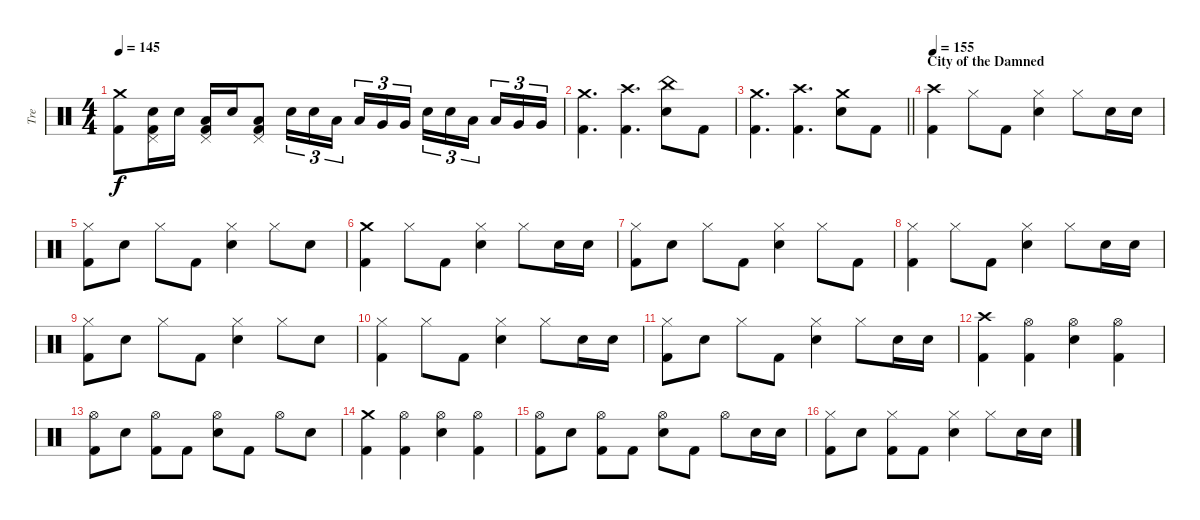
\track ("Tre" "Tre") {instrument percussion}
\staff {score}
\articulation defaults
\ts (4 4)
\tempo 145
\clef neutral
\ks c
("Crash medium (hit)" "Kick (hit) 2").8{dy f} ("Snare (hit) 2" "Pedal Hi-Hat (hit)" "Kick (hit) 2").16 "Snare (hit) 2".16 ("Low Tom (hit)" "Pedal Hi-Hat (hit)" "Kick (hit) 2").16 "Snare (hit) 2".16 ("Low Tom (hit)" "Pedal Hi-Hat (hit)" "Kick (hit) 2").8 "Snare (hit) 2".16{tu (3 2)} "Snare (hit) 2".16{tu (3 2)} "Low Tom (hit)".16{tu (3 2) beam splitsecondary} "Low Tom (hit)".16{tu (3 2)} "Very Low Tom (hit)".16{tu (3 2)} "Very Low Tom (hit)".16{tu (3 2)} "Snare (hit) 2".16{tu (3 2)} "Snare (hit) 2".16{tu (3 2)} "Low Tom (hit)".16{tu (3 2) beam splitsecondary} "Low Tom (hit)".16{tu (3 2)} "Very Low Tom (hit)".16{tu (3 2)} "Very Low Tom (hit)".16{tu (3 2)} |
("Crash medium (hit)" "Kick (hit) 2").4{d} ("Crash high (hit)" "Kick (hit) 2").4{d} ("China (hit)" "Snare (hit) 2").8 "Kick (hit) 2".8 |
\barLineRight lightlight
("Crash medium (hit)" "Kick (hit) 2").4{d} ("Crash high (hit)" "Kick (hit) 2").4{d} ("Crash medium (hit)" "Snare (hit) 2").8 "Kick (hit) 2".8 |
\section ("" "City of the Damned")
\tempo 155
("Crash high (hit)" "Kick (hit) 2").4 "Hi-Hat (closed)".8 "Kick (hit) 2".8 ("Hi-Hat (closed)" "Snare (hit) 2").4 "Hi-Hat (closed)".8 "Snare (hit) 2".16 "Snare (hit) 2".16 |
("Hi-Hat (closed)" "Kick (hit) 2").8 "Snare (hit) 2".8 "Hi-Hat (closed)".8 "Kick (hit) 2".8 ("Hi-Hat (closed)" "Snare (hit) 2").4 "Hi-Hat (closed)".8 "Snare (hit) 2".8 |
("Crash medium (hit)" "Kick (hit) 2").4 "Hi-Hat (closed)".8 "Kick (hit) 2".8 ("Hi-Hat (closed)" "Snare (hit) 2").4 "Hi-Hat (closed)".8 "Snare (hit) 2".16 "Snare (hit) 2".16 |
("Hi-Hat (closed)" "Kick (hit) 2").8 "Snare (hit) 2".8 "Hi-Hat (closed)".8 "Kick (hit) 2".8 ("Hi-Hat (closed)" "Snare (hit) 2").4 "Hi-Hat (closed)".8 "Kick (hit) 2".8 |
("Hi-Hat (closed)" "Kick (hit) 2").4 "Hi-Hat (closed)".8 "Kick (hit) 2".8 ("Hi-Hat (closed)" "Snare (hit) 2").4 "Hi-Hat (closed)".8 "Snare (hit) 2".16 "Snare (hit) 2".16 |
("Hi-Hat (closed)" "Kick (hit) 2").8 "Snare (hit) 2".8 "Hi-Hat (closed)".8 "Kick (hit) 2".8 ("Hi-Hat (closed)" "Snare (hit) 2").4 "Hi-Hat (closed)".8 "Snare (hit) 2".8 |
("Hi-Hat (closed)" "Kick (hit) 2").4 "Hi-Hat (closed)".8 "Kick (hit) 2".8 ("Hi-Hat (closed)" "Snare (hit) 2").4 "Hi-Hat (closed)".8 "Snare (hit) 2".16 "Snare (hit) 2".16 |
("Hi-Hat (closed)" "Kick (hit) 2").8 "Snare (hit) 2".8 "Hi-Hat (closed)".8 "Kick (hit) 2".8 ("Hi-Hat (closed)" "Snare (hit) 2").4 "Hi-Hat (closed)".8 "Snare (hit) 2".16 "Snare (hit) 2".16 |
("Crash high (hit)" "Kick (hit) 2").4 ("Hi-Hat (open)" "Kick (hit) 2").4 ("Hi-Hat (open)" "Snare (hit) 2").4 ("Hi-Hat (open)" "Kick (hit) 2").4 |
("Hi-Hat (open)" "Kick (hit) 2").8 "Snare (hit) 2".8 ("Hi-Hat (open)" "Kick (hit) 2").8 "Kick (hit) 2".8 ("Hi-Hat (open)" "Snare (hit) 2").8 "Kick (hit) 2".8 "Hi-Hat (open)".8 "Snare (hit) 2".8 |
("Crash medium (hit)" "Kick (hit) 2").4 ("Hi-Hat (open)" "Kick (hit) 2").4 ("Hi-Hat (open)" "Snare (hit) 2").4 ("Hi-Hat (open)" "Kick (hit) 2").4 |
("Hi-Hat (open)" "Kick (hit) 2").8 "Snare (hit) 2".8 ("Hi-Hat (open)" "Kick (hit) 2").8 "Kick (hit) 2".8 ("Hi-Hat (open)" "Snare (hit) 2").8 "Kick (hit) 2".8 "Hi-Hat (open)".8 "Snare (hit) 2".16 "Snare (hit) 2".16 |
("Hi-Hat (closed)" "Kick (hit) 2").8 "Snare (hit) 2".8 ("Hi-Hat (closed)" "Kick (hit) 2").8 "Kick (hit) 2".8 ("Hi-Hat (closed)" "Snare (hit) 2").4 "Hi-Hat (closed)".8 "Snare (hit) 2".16 "Snare (hit) 2".16
